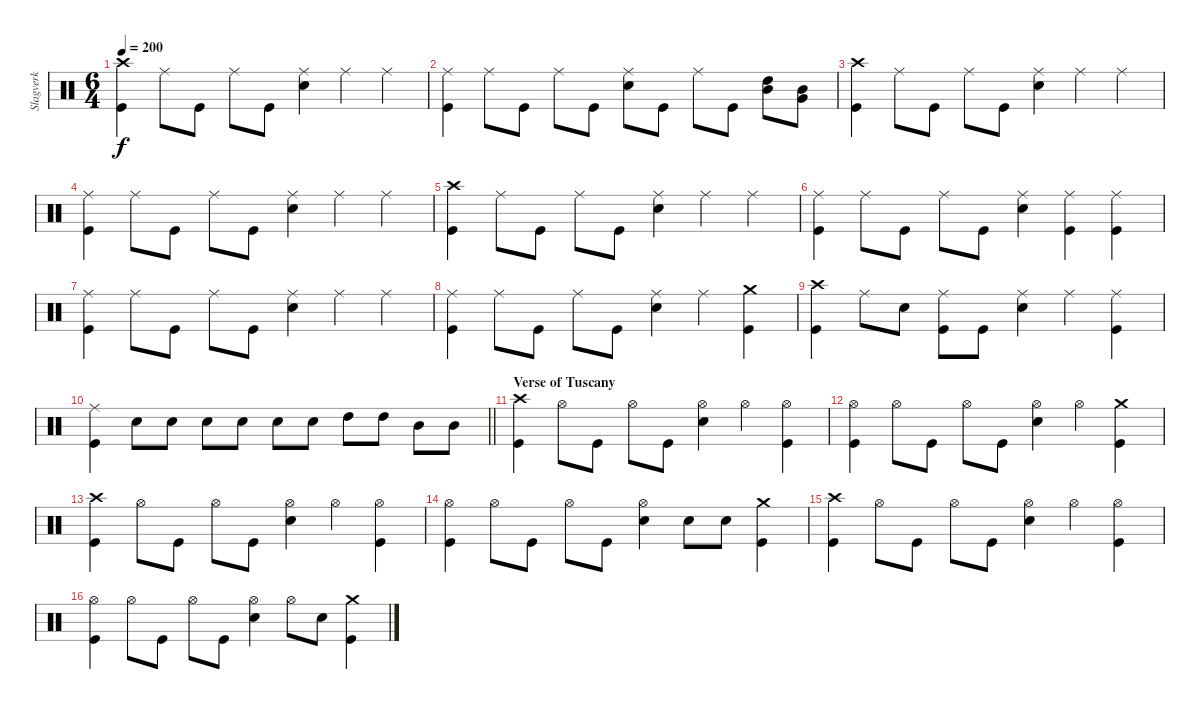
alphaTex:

\track ("Slagverk" "Slagverk") {instrument percussion}
\staff {score}
\articulation defaults
\ts (6 4)
\tempo 200
\clef neutral
\ks c
("Crash high (hit)" "Kick (hit)").4{dy f} "Ride (middle)".8 "Kick (hit)".8 "Ride (middle)".8 "Kick (hit)".8 ("Ride (middle)" "Electric Snare (hit)").4 "Ride (middle)".4 "Ride (middle)".4 |
("Ride (middle)" "Kick (hit)").4 "Ride (middle)".8 "Kick (hit)".8 "Ride (middle)".8 "Kick (hit)".8 ("Ride (middle)" "Electric Snare (hit)").8 "Kick (hit)".8 "Ride (middle)".8 "Kick (hit)".8 ("Mid Tom (hit)" "High Tom (hit)").8 ("Mid Tom (hit)" "Very Low Tom (hit)").8 |
("Crash high (hit)" "Kick (hit)").4 "Ride (middle)".8 "Kick (hit)".8 "Ride (middle)".8 "Kick (hit)".8 ("Ride (middle)" "Electric Snare (hit)").4 "Ride (middle)".4 "Ride (middle)".4 |
("Ride (middle)" "Kick (hit)").4 "Ride (middle)".8 "Kick (hit)".8 "Ride (middle)".8 "Kick (hit)".8 ("Ride (middle)" "Electric Snare (hit)").4 "Ride (middle)".4 "Ride (middle)".4 |
("Crash high (hit)" "Kick (hit)").4 "Ride (middle)".8 "Kick (hit)".8 "Ride (middle)".8 "Kick (hit)".8 ("Ride (middle)" "Electric Snare (hit)").4 "Ride (middle)".4 "Ride (middle)".4 |
("Ride (middle)" "Kick (hit)").4 "Ride (middle)".8 "Kick (hit)".8 "Ride (middle)".8 "Kick (hit)".8 ("Ride (middle)" "Electric Snare (hit)").4 ("Ride (middle)" "Kick (hit)").4 ("Ride (middle)" "Kick (hit)").4 |
("Ride (middle)" "Kick (hit)").4 "Ride (middle)".8 "Kick (hit)".8 "Ride (middle)".8 "Kick (hit)".8 ("Ride (middle)" "Electric Snare (hit)").4 "Ride (middle)".4 "Ride (middle)".4 |
("Ride (middle)" "Kick (hit)").4 "Ride (middle)".8 "Kick (hit)".8 "Ride (middle)".8 "Kick (hit)".8 ("Ride (middle)" "Electric Snare (hit)").4 "Ride (middle)".4 ("Crash medium (hit)" "Kick (hit)").4 |
("Crash high (hit)" "Kick (hit)").4 "Ride (middle)".8 "Electric Snare (hit)".8 ("Ride (middle)" "Kick (hit)").8 "Kick (hit)".8 ("Ride (middle)" "Electric Snare (hit)").4 "Ride (middle)".4 ("Ride (middle)" "Kick (hit)").4 |
\barLineRight lightlight
("Ride (middle)" "Kick (hit)").4 "Electric Snare (hit)".8 "Electric Snare (hit)".8 "Electric Snare (hit)".8 "Electric Snare (hit)".8 "Electric Snare (hit)".8 "Electric Snare (hit)".8 "High Tom (hit)".8 "High Tom (hit)".8 "Mid Tom (hit)".8 "Mid Tom (hit)".8 |
\section ("" "Verse of Tuscany")
("Crash high (hit)" "Kick (hit)").4 "Hi-Hat (open)".8 "Kick (hit)".8 "Hi-Hat (open)".8 "Kick (hit)".8 ("Hi-Hat (open)" "Electric Snare (hit)").4 "Hi-Hat (open)".4 ("Hi-Hat (open)" "Kick (hit)").4 |
("Hi-Hat (open)" "Kick (hit)").4 "Hi-Hat (open)".8 "Kick (hit)".8 "Hi-Hat (open)".8 "Kick (hit)".8 ("Hi-Hat (open)" "Electric Snare (hit)").4 "Hi-Hat (open)".4 ("Crash medium (hit)" "Kick (hit)").4 |
("Crash high (hit)" "Kick (hit)").4 "Hi-Hat (open)".8 "Kick (hit)".8 "Hi-Hat (open)".8 "Kick (hit)".8 ("Hi-Hat (open)" "Electric Snare (hit)").4 "Hi-Hat (open)".4 ("Hi-Hat (open)" "Kick (hit)").4 |
("Hi-Hat (open)" "Kick (hit)").4 "Hi-Hat (open)".8 "Kick (hit)".8 "Hi-Hat (open)".8 "Kick (hit)".8 ("Hi-Hat (open)" "Electric Snare (hit)").4 "Electric Snare (hit)".8 "Electric Snare (hit)".8 ("Crash medium (hit)" "Kick (hit)").4 |
("Crash high (hit)" "Kick (hit)").4 "Hi-Hat (open)".8 "Kick (hit)".8 "Hi-Hat (open)".8 "Kick (hit)".8 ("Hi-Hat (open)" "Electric Snare (hit)").4 "Hi-Hat (open)".4 ("Hi-Hat (open)" "Kick (hit)").4 |
("Hi-Hat (open)" "Kick (hit)").4 "Hi-Hat (open)".8 "Kick (hit)".8 "Hi-Hat (open)".8 "Kick (hit)".8 ("Hi-Hat (open)" "Electric Snare (hit)").4 "Hi-Hat (open)".8 "Electric Snare (hit)".8 ("Crash medium (hit)" "Kick (hit)").4
